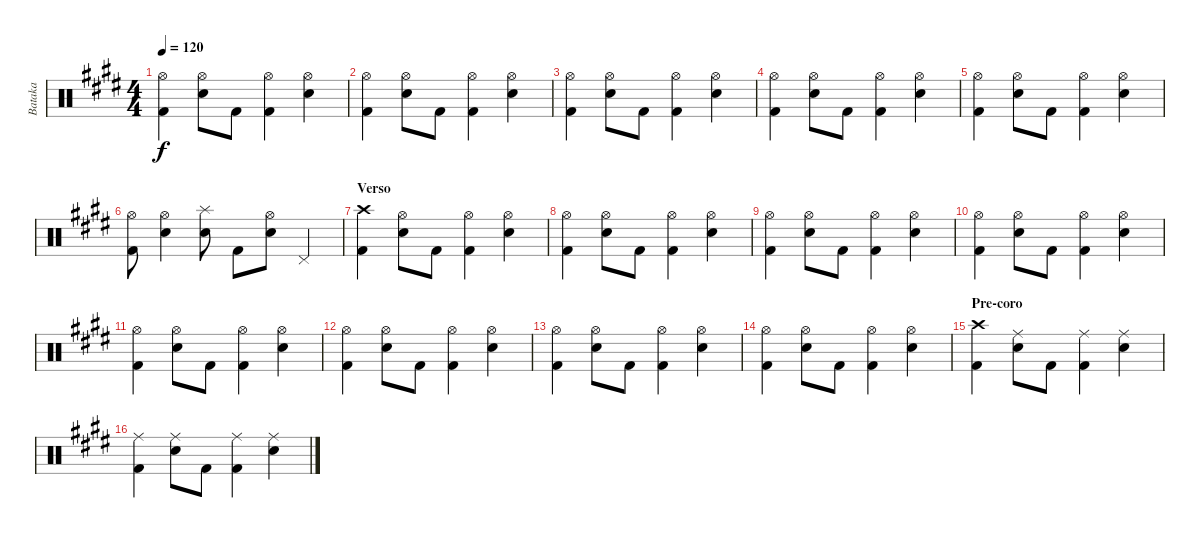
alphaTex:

\track ("Bataka" "Bataka") {instrument percussion}
\staff {score}
\articulation defaults
\ts (4 4)
\tempo 120
\clef neutral
\ks e
("Hi-Hat (open)" "Kick (hit) 2").4{dy f} ("Hi-Hat (open)" "Electric Snare (hit)").8 "Kick (hit) 2".8 ("Hi-Hat (open)" "Kick (hit) 2").4 ("Hi-Hat (open)" "Electric Snare (hit)").4 |
("Hi-Hat (open)" "Kick (hit) 2").4 ("Hi-Hat (open)" "Electric Snare (hit)").8 "Kick (hit) 2".8 ("Hi-Hat (open)" "Kick (hit) 2").4 ("Hi-Hat (open)" "Electric Snare (hit)").4 |
("Hi-Hat (open)" "Kick (hit) 2").4 ("Hi-Hat (open)" "Electric Snare (hit)").8 "Kick (hit) 2".8 ("Hi-Hat (open)" "Kick (hit) 2").4 ("Hi-Hat (open)" "Electric Snare (hit)").4 |
("Hi-Hat (open)" "Kick (hit) 2").4 ("Hi-Hat (open)" "Electric Snare (hit)").8 "Kick (hit) 2".8 ("Hi-Hat (open)" "Kick (hit) 2").4 ("Hi-Hat (open)" "Electric Snare (hit)").4 |
("Hi-Hat (open)" "Kick (hit) 2").4 ("Hi-Hat (open)" "Electric Snare (hit)").8 "Kick (hit) 2".8 ("Hi-Hat (open)" "Kick (hit) 2").4 ("Hi-Hat (open)" "Electric Snare (hit)").4 |
("Hi-Hat (open)" "Kick (hit) 2").8 ("Hi-Hat (open)" "Electric Snare (hit)").4 ("Splash (hit)" "Electric Snare (hit)").8 "Kick (hit) 2".8 ("Hi-Hat (open)" "Electric Snare (hit)").8 "Pedal Hi-Hat (hit)".4 |
\section ("" "Verso")
("Crash high (hit)" "Kick (hit) 2").4 ("Hi-Hat (open)" "Electric Snare (hit)").8 "Kick (hit) 2".8 ("Hi-Hat (open)" "Kick (hit) 2").4 ("Hi-Hat (open)" "Electric Snare (hit)").4 |
("Hi-Hat (open)" "Kick (hit) 2").4 ("Hi-Hat (open)" "Electric Snare (hit)").8 "Kick (hit) 2".8 ("Hi-Hat (open)" "Kick (hit) 2").4 ("Hi-Hat (open)" "Electric Snare (hit)").4 |
("Hi-Hat (open)" "Kick (hit) 2").4 ("Hi-Hat (open)" "Electric Snare (hit)").8 "Kick (hit) 2".8 ("Hi-Hat (open)" "Kick (hit) 2").4 ("Hi-Hat (open)" "Electric Snare (hit)").4 |
("Hi-Hat (open)" "Kick (hit) 2").4 ("Hi-Hat (open)" "Electric Snare (hit)").8 "Kick (hit) 2".8 ("Hi-Hat (open)" "Kick (hit) 2").4 ("Hi-Hat (open)" "Electric Snare (hit)").4 |
("Hi-Hat (open)" "Kick (hit) 2").4 ("Hi-Hat (open)" "Electric Snare (hit)").8 "Kick (hit) 2".8 ("Hi-Hat (open)" "Kick (hit) 2").4 ("Hi-Hat (open)" "Electric Snare (hit)").4 |
("Hi-Hat (open)" "Kick (hit) 2").4 ("Hi-Hat (open)" "Electric Snare (hit)").8 "Kick (hit) 2".8 ("Hi-Hat (open)" "Kick (hit) 2").4 ("Hi-Hat (open)" "Electric Snare (hit)").4 |
("Hi-Hat (open)" "Kick (hit) 2").4 ("Hi-Hat (open)" "Electric Snare (hit)").8 "Kick (hit) 2".8 ("Hi-Hat (open)" "Kick (hit) 2").4 ("Hi-Hat (open)" "Electric Snare (hit)").4 |
("Hi-Hat (open)" "Kick (hit) 2").4 ("Hi-Hat (open)" "Electric Snare (hit)").8 "Kick (hit) 2".8 ("Hi-Hat (open)" "Kick (hit) 2").4 ("Hi-Hat (open)" "Electric Snare (hit)").4 |
\section ("" "Pre-coro")
("Crash high (hit)" "Kick (hit) 2").4 ("Ride (middle)" "Electric Snare (hit)").8 "Kick (hit) 2".8 ("Ride (middle)" "Kick (hit) 2").4 ("Ride (middle)" "Electric Snare (hit)").4 |
("Ride (middle)" "Kick (hit) 2").4 ("Ride (middle)" "Electric Snare (hit)").8 "Kick (hit) 2".8 ("Ride (middle)" "Kick (hit) 2").4 ("Ride (middle)" "Electric Snare (hit)").4
